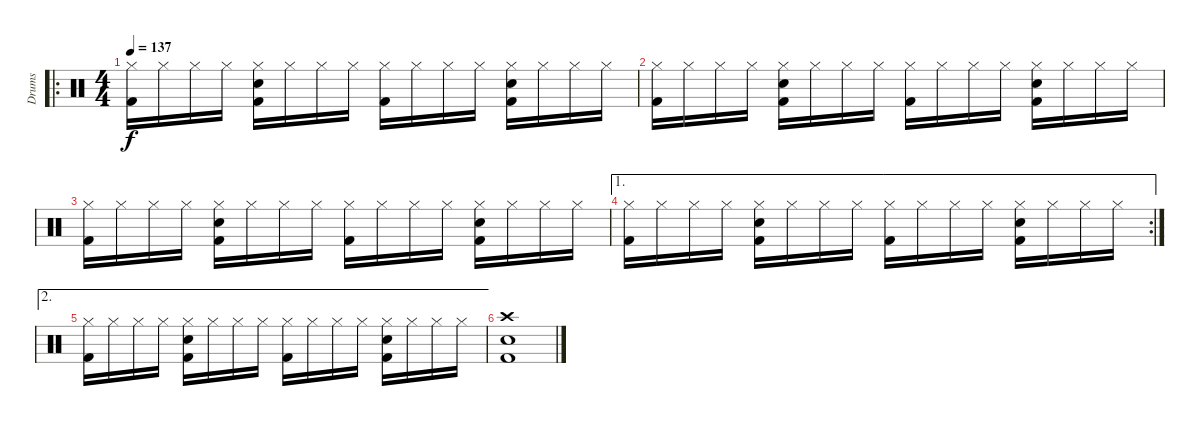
\track ("Drums" "Drums") {instrument percussion}
\staff {score}
\articulation defaults
\ro
\ts (4 4)
\tempo 137
\clef neutral
\ks c
("Hi-Hat (closed)" "Kick (hit) 2").16{dy f} "Hi-Hat (closed)".16 "Hi-Hat (closed)".16 "Hi-Hat (closed)".16 ("Hi-Hat (closed)" "Electric Snare (hit)" "Kick (hit) 2").16 "Hi-Hat (closed)".16 "Hi-Hat (closed)".16 "Hi-Hat (closed)".16 ("Hi-Hat (closed)" "Kick (hit) 2").16 "Hi-Hat (closed)".16 "Hi-Hat (closed)".16 "Hi-Hat (closed)".16 ("Hi-Hat (closed)" "Electric Snare (hit)" "Kick (hit) 2").16 "Hi-Hat (closed)".16 "Hi-Hat (closed)".16 "Hi-Hat (closed)".16 |
("Hi-Hat (closed)" "Kick (hit) 2").16 "Hi-Hat (closed)".16 "Hi-Hat (closed)".16 "Hi-Hat (closed)".16 ("Hi-Hat (closed)" "Electric Snare (hit)" "Kick (hit) 2").16 "Hi-Hat (closed)".16 "Hi-Hat (closed)".16 "Hi-Hat (closed)".16 ("Hi-Hat (closed)" "Kick (hit) 2").16 "Hi-Hat (closed)".16 "Hi-Hat (closed)".16 "Hi-Hat (closed)".16 ("Hi-Hat (closed)" "Electric Snare (hit)" "Kick (hit) 2").16 "Hi-Hat (closed)".16 "Hi-Hat (closed)".16 "Hi-Hat (closed)".16 |
("Hi-Hat (closed)" "Kick (hit) 2").16 "Hi-Hat (closed)".16 "Hi-Hat (closed)".16 "Hi-Hat (closed)".16 ("Hi-Hat (closed)" "Electric Snare (hit)" "Kick (hit) 2").16 "Hi-Hat (closed)".16 "Hi-Hat (closed)".16 "Hi-Hat (closed)".16 ("Hi-Hat (closed)" "Kick (hit) 2").16 "Hi-Hat (closed)".16 "Hi-Hat (closed)".16 "Hi-Hat (closed)".16 ("Hi-Hat (closed)" "Electric Snare (hit)" "Kick (hit) 2").16 "Hi-Hat (closed)".16 "Hi-Hat (closed)".16 "Hi-Hat (closed)".16 |
\ae 1
\rc 2
("Hi-Hat (closed)" "Kick (hit) 2").16 "Hi-Hat (closed)".16 "Hi-Hat (closed)".16 "Hi-Hat (closed)".16 ("Hi-Hat (closed)" "Electric Snare (hit)" "Kick (hit) 2").16 "Hi-Hat (closed)".16 "Hi-Hat (closed)".16 "Hi-Hat (closed)".16 ("Hi-Hat (closed)" "Kick (hit) 2").16 "Hi-Hat (closed)".16 "Hi-Hat (closed)".16 "Hi-Hat (closed)".16 ("Hi-Hat (closed)" "Electric Snare (hit)" "Kick (hit) 2").16 "Hi-Hat (closed)".16 "Hi-Hat (closed)".16 "Hi-Hat (closed)".16 |
\ae 2
("Hi-Hat (closed)" "Kick (hit) 2").16 "Hi-Hat (closed)".16 "Hi-Hat (closed)".16 "Hi-Hat (closed)".16 ("Hi-Hat (closed)" "Electric Snare (hit)" "Kick (hit) 2").16 "Hi-Hat (closed)".16 "Hi-Hat (closed)".16 "Hi-Hat (closed)".16 ("Hi-Hat (closed)" "Kick (hit) 2").16 "Hi-Hat (closed)".16 "Hi-Hat (closed)".16 "Hi-Hat (closed)".16 ("Hi-Hat (closed)" "Electric Snare (hit)" "Kick (hit) 2").16 "Hi-Hat (closed)".16 "Hi-Hat (closed)".16 "Hi-Hat (closed)".16 |
("Crash high (hit)" "Kick (hit) 2" "Electric Snare (hit)").1
